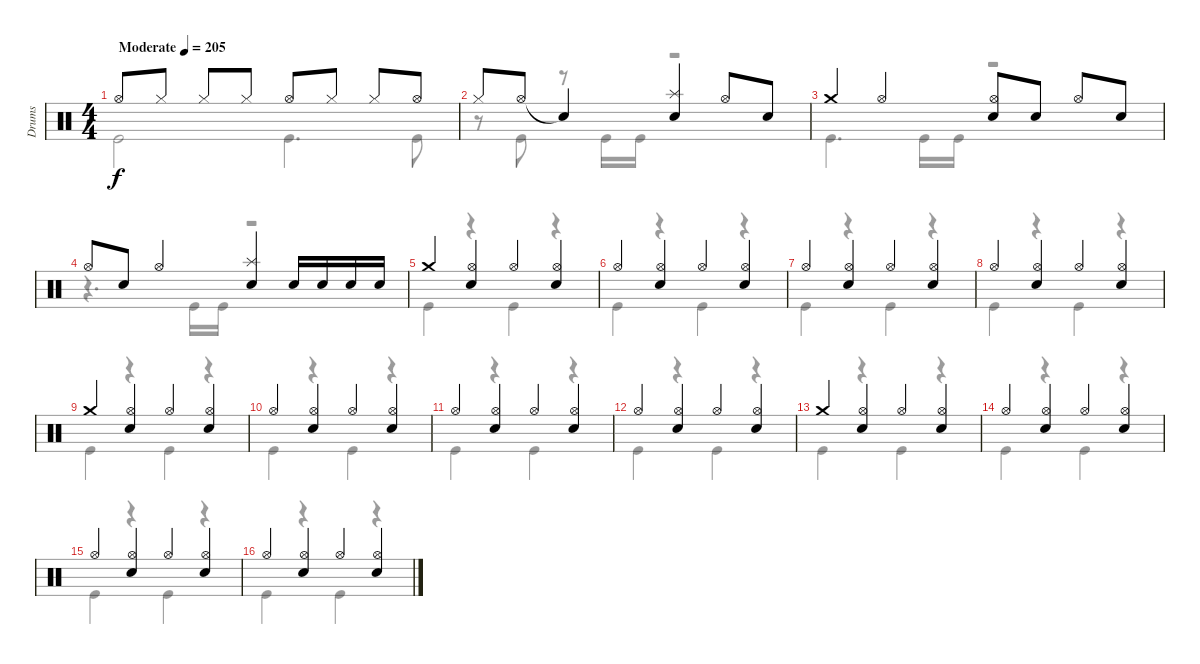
\track ("Drums" "Drums") {instrument percussion}
\staff {score}
\articulation defaults
\voice
\ts (4 4)
\tempo (205 "Moderate")
\clef neutral
\ks c "Hi-Hat (open)".8{dy f} "Hi-Hat (closed)".8 "Hi-Hat (closed)".8 "Hi-Hat (closed)".8 "Hi-Hat (open)".8 "Hi-Hat (closed)".8 "Hi-Hat (closed)".8 "Hi-Hat (open)".8
|
"Hi-Hat (closed)".8 "Hi-Hat (open)".8 "Snare (hit)"{t}.4 ("Splash (hit)" "Snare (hit) 2").4 "Hi-Hat (open)".8 "Snare (hit) 2".8 |
"Crash medium (hit)".4 "Hi-Hat (open)".4 ("Hi-Hat (open)" "Snare (hit) 2").8 "Snare (hit) 2".8 "Hi-Hat (open)".8 "Snare (hit) 2".8 |
"Hi-Hat (open)".8 "Snare (hit) 2".8 "Hi-Hat (open)".4 ("Splash (hit)" "Snare (hit) 2").4 "Snare (hit) 2".16 "Snare (hit) 2".16 "Snare (hit) 2".16 "Snare (hit) 2".16 |
"Crash medium (hit)".4 ("Hi-Hat (open)" "Snare (hit) 2").4 "Hi-Hat (open)".4 ("Hi-Hat (open)" "Snare (hit) 2").4 |
"Hi-Hat (open)".4 ("Hi-Hat (open)" "Snare (hit) 2").4 "Hi-Hat (open)".4 ("Hi-Hat (open)" "Snare (hit) 2").4 |
"Hi-Hat (open)".4 ("Hi-Hat (open)" "Snare (hit) 2").4 "Hi-Hat (open)".4 ("Hi-Hat (open)" "Snare (hit) 2").4 |
"Hi-Hat (open)".4 ("Hi-Hat (open)" "Snare (hit) 2").4 "Hi-Hat (open)".4 ("Hi-Hat (open)" "Snare (hit) 2").4 |
"Crash medium (hit)".4 ("Hi-Hat (open)" "Snare (hit) 2").4 "Hi-Hat (open)".4 ("Hi-Hat (open)" "Snare (hit) 2").4 |
"Hi-Hat (open)".4 ("Hi-Hat (open)" "Snare (hit) 2").4 "Hi-Hat (open)".4 ("Hi-Hat (open)" "Snare (hit) 2").4 |
"Hi-Hat (open)".4 ("Hi-Hat (open)" "Snare (hit) 2").4 "Hi-Hat (open)".4 ("Hi-Hat (open)" "Snare (hit) 2").4 |
"Hi-Hat (open)".4 ("Hi-Hat (open)" "Snare (hit) 2").4 "Hi-Hat (open)".4 ("Hi-Hat (open)" "Snare (hit) 2").4 |
"Crash medium (hit)".4 ("Hi-Hat (open)" "Snare (hit) 2").4 "Hi-Hat (open)".4 ("Hi-Hat (open)" "Snare (hit) 2").4 |
"Hi-Hat (open)".4 ("Hi-Hat (open)" "Snare (hit) 2").4 "Hi-Hat (open)".4 ("Hi-Hat (open)" "Snare (hit) 2").4 |
"Hi-Hat (open)".4 ("Hi-Hat (open)" "Snare (hit) 2").4 "Hi-Hat (open)".4 ("Hi-Hat (open)" "Snare (hit) 2").4 |
"Hi-Hat (open)".4 ("Hi-Hat (open)" "Snare (hit) 2").4 "Hi-Hat (open)".4 ("Hi-Hat (open)" "Snare (hit) 2").4
\voice
\clef neutral
\ottava regular
\simile none
\ks c "Kick (hit)".2{dy f} "Kick (hit)".4{d} "Kick (hit)".8
|
r.8 "Kick (hit)".8 r.8 "Kick (hit)".16 "Kick (hit)".16 r.2 |
"Kick (hit)".4{d} "Kick (hit)".16 "Kick (hit)".16 r.2 |
r.4{d} "Kick (hit)".16 "Kick (hit)".16 r.2 |
"Kick (hit)".4 r.4 "Kick (hit)".4 r.4 |
"Kick (hit)".4 r.4 "Kick (hit)".4 r.4 |
"Kick (hit)".4 r.4 "Kick (hit)".4 r.4 |
"Kick (hit)".4 r.4 "Kick (hit)".4 r.4 |
"Kick (hit)".4 r.4 "Kick (hit)".4 r.4 |
"Kick (hit)".4 r.4 "Kick (hit)".4 r.4 |
"Kick (hit)".4 r.4 "Kick (hit)".4 r.4 |
"Kick (hit)".4 r.4 "Kick (hit)".4 r.4 |
"Kick (hit)".4 r.4 "Kick (hit)".4 r.4 |
"Kick (hit)".4 r.4 "Kick (hit)".4 r.4 |
"Kick (hit)".4 r.4 "Kick (hit)".4 r.4 |
"Kick (hit)".4 r.4 "Kick (hit)".4 r.4
